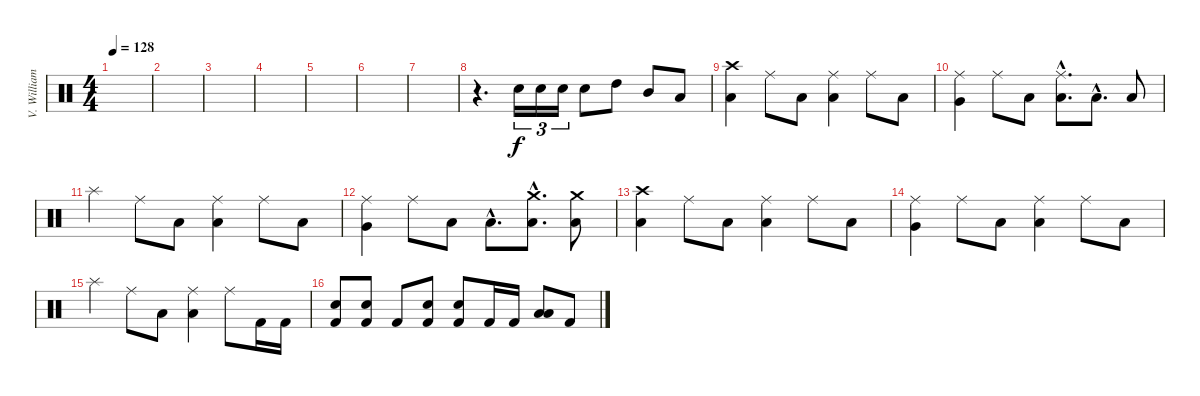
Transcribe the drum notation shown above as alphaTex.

\track ("V. Williams" "V. William") {instrument percussion}
\staff {score}
\articulation defaults
\ts (4 4)
\tempo 128
\clef neutral
\ks c
|
|
|
|
|
|
|
r.4{d} "Electric Snare (hit)".16{tu (3 2)} "Electric Snare (hit)".16{tu (3 2)} "Electric Snare (hit)".16{tu (3 2)} "Electric Snare (hit)".8 "High Tom (hit)".8 "Mid Tom (hit)".8 "Low Tom (hit)".8 |
\section ("" "")
("Crash high (hit)" "Low Tom (hit)").4 "Ride (middle)".8 "Low Tom (hit)".8 ("Ride (middle)" "Low Tom (hit)").4 "Ride (middle)".8 "Low Floor Tom (hit)".8 |
("Ride (middle)" "Very Low Tom (hit)").4 "Ride (middle)".8 "Low Tom (hit)".8 ("Ride (middle)"{hac} "Low Tom (hit)"{hac}).8{d} "Low Tom (hit)"{hac}.8{d} "Low Tom (hit)".8 |
"Splash (hit)".4 "Ride (middle)".8 "Low Tom (hit)".8 ("Ride (middle)" "Low Tom (hit)").4 "Ride (middle)".8 "Low Floor Tom (hit)".8 |
("Ride (middle)" "Very Low Tom (hit)").4 "Ride (middle)".8 "Low Tom (hit)".8 "Low Tom (hit)"{hac}.8{d} ("Crash medium (hit)"{hac} "Low Tom (hit)"{hac}).8{d} ("Crash medium (hit)" "Low Tom (hit)").8 |
("Crash high (hit)" "Low Tom (hit)").4 "Ride (middle)".8 "Low Tom (hit)".8 ("Ride (middle)" "Low Tom (hit)").4 "Ride (middle)".8 "Low Floor Tom (hit)".8 |
("Ride (middle)" "Very Low Tom (hit)").4 "Ride (middle)".8 "Low Tom (hit)".8 ("Ride (middle)" "Low Tom (hit)").4 "Ride (middle)".8 "Low Floor Tom (hit)".8 |
"Splash (hit)".4 "Ride (middle)".8 "Low Tom (hit)".8 ("Ride (middle)" "Low Tom (hit)").4 "Ride (middle)".8 "Kick (hit) 2".16 "Kick (hit) 2".16 |
("Electric Snare (hit)" "Kick (hit) 2").8 ("Electric Snare (hit)" "Kick (hit) 2").8 "Kick (hit) 2".8 ("Electric Snare (hit)" "Kick (hit) 2").8 ("Electric Snare (hit)" "Kick (hit) 2").8 "Kick (hit) 2".16 "Kick (hit) 2".16 ("Low Tom (hit)" "Low Floor Tom (hit)").8 "Kick (hit) 2".8
